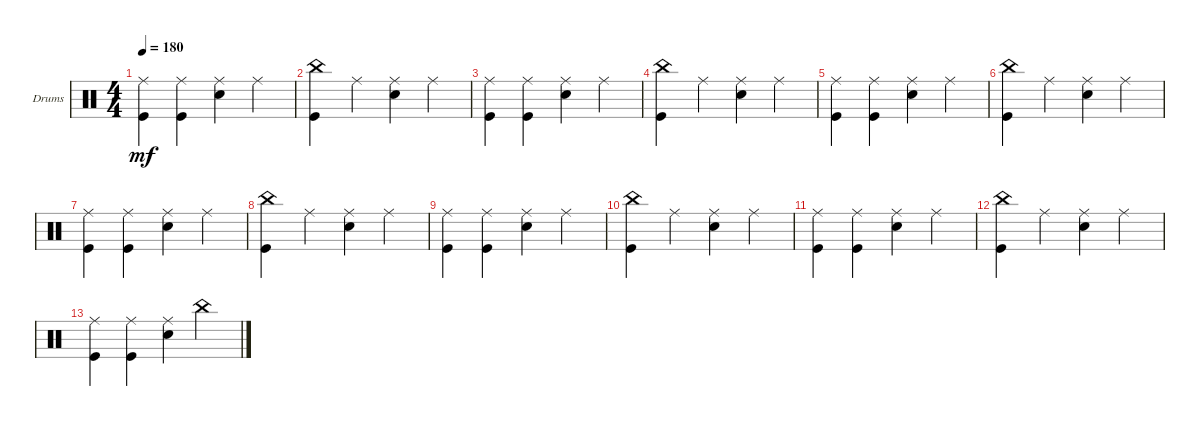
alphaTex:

\defaultSystemsLayout 4
\bracketExtendMode groupsimilarinstruments
\firstSystemTrackNameOrientation horizontal
\otherSystemsTrackNameOrientation horizontal
\track ("Drumkit" "Drums") {instrument percussion}
\staff {score}
\articulation defaults
\ts (4 4)
\tempo 180
\clef neutral
\ks c
("Ride (middle)" "Kick (hit)").4{dy mf} ("Ride (middle)" "Kick (hit)").4 ("Ride (middle)" "Snare (hit) 2").4 "Ride (middle)".4 |
("Kick (hit)" "China (hit)").4 "Ride (middle)".4 ("Ride (middle)" "Snare (hit) 2").4 "Ride (middle)".4 |
("Ride (middle)" "Kick (hit)").4 ("Ride (middle)" "Kick (hit)").4 ("Ride (middle)" "Snare (hit) 2").4 "Ride (middle)".4 |
("Kick (hit)" "China (hit)").4 "Ride (middle)".4 ("Ride (middle)" "Snare (hit) 2").4 "Ride (middle)".4 |
("Ride (middle)" "Kick (hit)").4 ("Ride (middle)" "Kick (hit)").4 ("Ride (middle)" "Snare (hit) 2").4 "Ride (middle)".4 |
("Kick (hit)" "China (hit)").4 "Ride (middle)".4 ("Ride (middle)" "Snare (hit) 2").4 "Ride (middle)".4 |
("Ride (middle)" "Kick (hit)").4 ("Ride (middle)" "Kick (hit)").4 ("Ride (middle)" "Snare (hit) 2").4 "Ride (middle)".4 |
("Kick (hit)" "China (hit)").4 "Ride (middle)".4 ("Ride (middle)" "Snare (hit) 2").4 "Ride (middle)".4 |
("Ride (middle)" "Kick (hit)").4 ("Ride (middle)" "Kick (hit)").4 ("Ride (middle)" "Snare (hit) 2").4 "Ride (middle)".4 |
("Kick (hit)" "China (hit)").4 "Ride (middle)".4 ("Ride (middle)" "Snare (hit) 2").4 "Ride (middle)".4 |
("Ride (middle)" "Kick (hit)").4 ("Ride (middle)" "Kick (hit)").4 ("Ride (middle)" "Snare (hit) 2").4 "Ride (middle)".4 |
("Kick (hit)" "China (hit)").4 "Ride (middle)".4 ("Ride (middle)" "Snare (hit) 2").4 "Ride (middle)".4 |
("Ride (middle)" "Kick (hit)").4 ("Ride (middle)" "Kick (hit)").4 ("Ride (middle)" "Snare (hit) 2").4 "China (hit)".4
